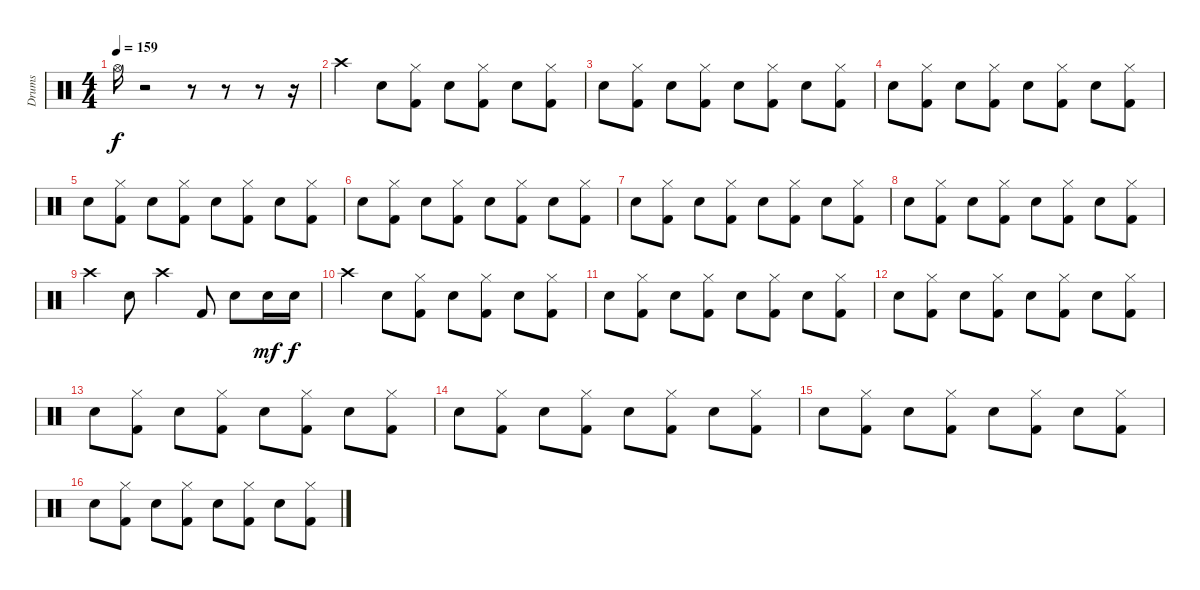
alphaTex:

\track ("Drums" "Drums") {instrument percussion}
\staff {score}
\articulation defaults
\ts (4 4)
\tempo 159
\clef neutral
\ks c "Hi-Hat (open)".16{dy f}
r.2 r.8 r.8 r.8 r.16 |
"Crash high (hit)".4 "Electric Snare (hit)".8 ("Kick (hit) 2" "Hi-Hat (closed)").8 "Electric Snare (hit)".8 ("Kick (hit) 2" "Hi-Hat (closed)").8 "Electric Snare (hit)".8 ("Kick (hit) 2" "Hi-Hat (closed)").8 |
"Electric Snare (hit)".8 ("Kick (hit) 2" "Hi-Hat (closed)").8 "Electric Snare (hit)".8 ("Kick (hit) 2" "Hi-Hat (closed)").8 "Electric Snare (hit)".8 ("Kick (hit) 2" "Hi-Hat (closed)").8 "Electric Snare (hit)".8 ("Kick (hit) 2" "Hi-Hat (closed)").8 |
"Electric Snare (hit)".8 ("Kick (hit) 2" "Hi-Hat (closed)").8 "Electric Snare (hit)".8 ("Kick (hit) 2" "Hi-Hat (closed)").8 "Electric Snare (hit)".8 ("Kick (hit) 2" "Hi-Hat (closed)").8 "Electric Snare (hit)".8 ("Kick (hit) 2" "Hi-Hat (closed)").8 |
"Electric Snare (hit)".8 ("Kick (hit) 2" "Hi-Hat (closed)").8 "Electric Snare (hit)".8 ("Kick (hit) 2" "Hi-Hat (closed)").8 "Electric Snare (hit)".8 ("Kick (hit) 2" "Hi-Hat (closed)").8 "Electric Snare (hit)".8 ("Kick (hit) 2" "Hi-Hat (closed)").8 |
"Electric Snare (hit)".8 ("Kick (hit) 2" "Hi-Hat (closed)").8 "Electric Snare (hit)".8 ("Kick (hit) 2" "Hi-Hat (closed)").8 "Electric Snare (hit)".8 ("Kick (hit) 2" "Hi-Hat (closed)").8 "Electric Snare (hit)".8 ("Kick (hit) 2" "Hi-Hat (closed)").8 |
"Electric Snare (hit)".8 ("Kick (hit) 2" "Hi-Hat (closed)").8 "Electric Snare (hit)".8 ("Kick (hit) 2" "Hi-Hat (closed)").8 "Electric Snare (hit)".8 ("Kick (hit) 2" "Hi-Hat (closed)").8 "Electric Snare (hit)".8 ("Kick (hit) 2" "Hi-Hat (closed)").8 |
"Electric Snare (hit)".8 ("Kick (hit) 2" "Hi-Hat (closed)").8 "Electric Snare (hit)".8 ("Kick (hit) 2" "Hi-Hat (closed)").8 "Electric Snare (hit)".8 ("Kick (hit) 2" "Hi-Hat (closed)").8 "Electric Snare (hit)".8 ("Kick (hit) 2" "Hi-Hat (closed)").8 |
"Crash high (hit)".4 "Electric Snare (hit)".8 "Crash high (hit)".4 "Kick (hit) 2".8 "Electric Snare (hit)".8 "Electric Snare (hit)".16{dy mf} "Electric Snare (hit)".16{dy f} |
"Crash high (hit)".4 "Electric Snare (hit)".8 ("Kick (hit) 2" "Hi-Hat (closed)").8 "Electric Snare (hit)".8 ("Kick (hit) 2" "Hi-Hat (closed)").8 "Electric Snare (hit)".8 ("Kick (hit) 2" "Hi-Hat (closed)").8 |
"Electric Snare (hit)".8 ("Kick (hit) 2" "Hi-Hat (closed)").8 "Electric Snare (hit)".8 ("Kick (hit) 2" "Hi-Hat (closed)").8 "Electric Snare (hit)".8 ("Kick (hit) 2" "Hi-Hat (closed)").8 "Electric Snare (hit)".8 ("Kick (hit) 2" "Hi-Hat (closed)").8 |
"Electric Snare (hit)".8 ("Kick (hit) 2" "Hi-Hat (closed)").8 "Electric Snare (hit)".8 ("Kick (hit) 2" "Hi-Hat (closed)").8 "Electric Snare (hit)".8 ("Kick (hit) 2" "Hi-Hat (closed)").8 "Electric Snare (hit)".8 ("Kick (hit) 2" "Hi-Hat (closed)").8 |
"Electric Snare (hit)".8 ("Kick (hit) 2" "Hi-Hat (closed)").8 "Electric Snare (hit)".8 ("Kick (hit) 2" "Hi-Hat (closed)").8 "Electric Snare (hit)".8 ("Kick (hit) 2" "Hi-Hat (closed)").8 "Electric Snare (hit)".8 ("Kick (hit) 2" "Hi-Hat (closed)").8 |
"Electric Snare (hit)".8 ("Kick (hit) 2" "Hi-Hat (closed)").8 "Electric Snare (hit)".8 ("Kick (hit) 2" "Hi-Hat (closed)").8 "Electric Snare (hit)".8 ("Kick (hit) 2" "Hi-Hat (closed)").8 "Electric Snare (hit)".8 ("Kick (hit) 2" "Hi-Hat (closed)").8 |
"Electric Snare (hit)".8 ("Kick (hit) 2" "Hi-Hat (closed)").8 "Electric Snare (hit)".8 ("Kick (hit) 2" "Hi-Hat (closed)").8 "Electric Snare (hit)".8 ("Kick (hit) 2" "Hi-Hat (closed)").8 "Electric Snare (hit)".8 ("Kick (hit) 2" "Hi-Hat (closed)").8 |
"Electric Snare (hit)".8 ("Kick (hit) 2" "Hi-Hat (closed)").8 "Electric Snare (hit)".8 ("Kick (hit) 2" "Hi-Hat (closed)").8 "Electric Snare (hit)".8 ("Kick (hit) 2" "Hi-Hat (closed)").8 "Electric Snare (hit)".8 ("Kick (hit) 2" "Hi-Hat (closed)").8
